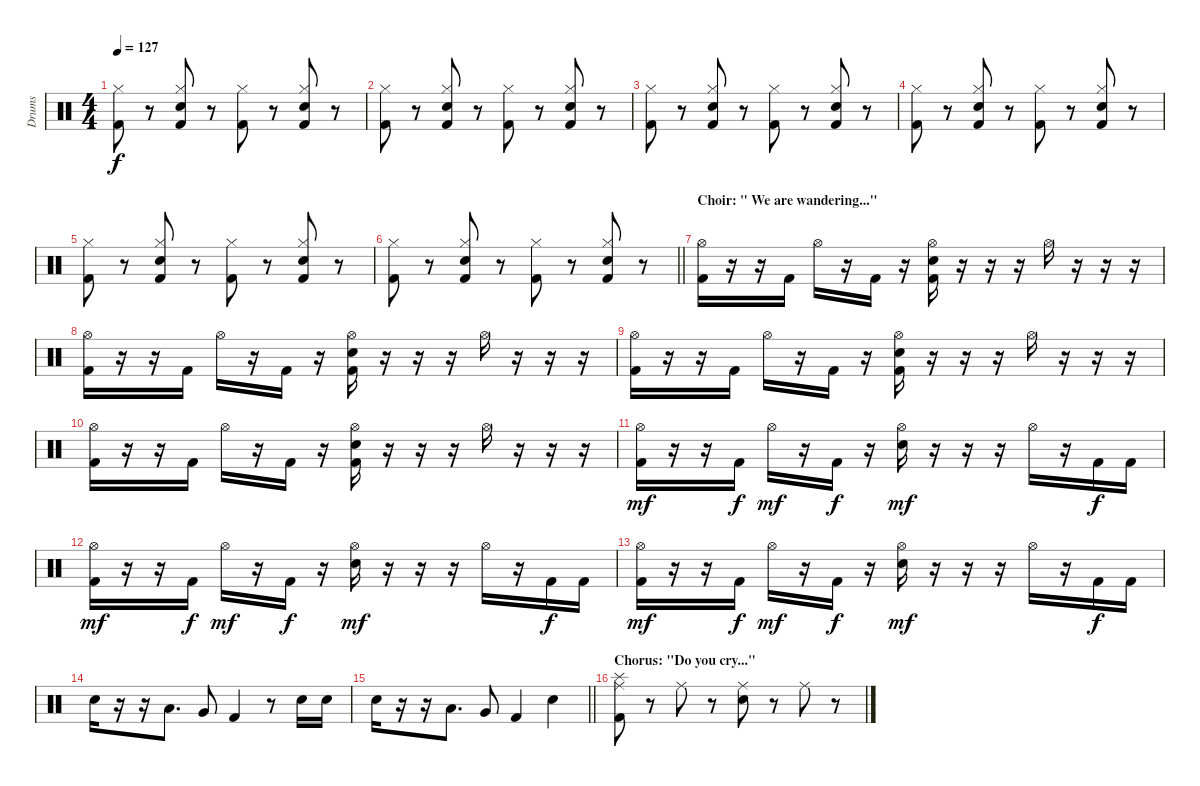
\track ("Drums" "Drums") {instrument percussion}
\staff {score}
\articulation defaults
\ts (4 4)
\tempo 127
\clef neutral
\ks c
("Kick (hit) 2" "Hi-Hat (closed)").8{dy f} r.8 ("Kick (hit) 2" "Electric Snare (hit)" "Hi-Hat (closed)").8 r.8 ("Kick (hit) 2" "Hi-Hat (closed)").8 r.8 ("Kick (hit) 2" "Electric Snare (hit)" "Hi-Hat (closed)").8 r.8 |
("Kick (hit) 2" "Hi-Hat (closed)").8 r.8 ("Kick (hit) 2" "Electric Snare (hit)" "Hi-Hat (closed)").8 r.8 ("Kick (hit) 2" "Hi-Hat (closed)").8 r.8 ("Kick (hit) 2" "Electric Snare (hit)" "Hi-Hat (closed)").8 r.8 |
("Kick (hit) 2" "Hi-Hat (closed)").8 r.8 ("Kick (hit) 2" "Electric Snare (hit)" "Hi-Hat (closed)").8 r.8 ("Kick (hit) 2" "Hi-Hat (closed)").8 r.8 ("Kick (hit) 2" "Electric Snare (hit)" "Hi-Hat (closed)").8 r.8 |
("Kick (hit) 2" "Hi-Hat (closed)").8 r.8 ("Kick (hit) 2" "Electric Snare (hit)" "Hi-Hat (closed)").8 r.8 ("Kick (hit) 2" "Hi-Hat (closed)").8 r.8 ("Kick (hit) 2" "Electric Snare (hit)" "Hi-Hat (closed)").8 r.8 |
("Kick (hit) 2" "Hi-Hat (closed)").8 r.8 ("Kick (hit) 2" "Electric Snare (hit)" "Hi-Hat (closed)").8 r.8 ("Kick (hit) 2" "Hi-Hat (closed)").8 r.8 ("Kick (hit) 2" "Electric Snare (hit)" "Hi-Hat (closed)").8 r.8 |
\barLineRight lightlight
("Kick (hit) 2" "Hi-Hat (closed)").8 r.8 ("Kick (hit) 2" "Electric Snare (hit)" "Hi-Hat (closed)").8 r.8 ("Kick (hit) 2" "Hi-Hat (closed)").8 r.8 ("Kick (hit) 2" "Electric Snare (hit)" "Hi-Hat (closed)").8 r.8 |
\section ("" "Choir: \" We are wandering...\"")
("Kick (hit) 2" "Hi-Hat (open)").16 r.16 r.16 "Kick (hit) 2".16 "Hi-Hat (open)".16 r.16 "Kick (hit) 2".16 r.16 ("Kick (hit) 2" "Electric Snare (hit)" "Hi-Hat (open)").16 r.16 r.16 r.16 "Hi-Hat (open)".16 r.16 r.16 r.16 |
("Kick (hit) 2" "Hi-Hat (open)").16 r.16 r.16 "Kick (hit) 2".16 "Hi-Hat (open)".16 r.16 "Kick (hit) 2".16 r.16 ("Kick (hit) 2" "Electric Snare (hit)" "Hi-Hat (open)").16 r.16 r.16 r.16 "Hi-Hat (open)".16 r.16 r.16 r.16 |
("Kick (hit) 2" "Hi-Hat (open)").16 r.16 r.16 "Kick (hit) 2".16 "Hi-Hat (open)".16 r.16 "Kick (hit) 2".16 r.16 ("Kick (hit) 2" "Electric Snare (hit)" "Hi-Hat (open)").16 r.16 r.16 r.16 "Hi-Hat (open)".16 r.16 r.16 r.16 |
("Kick (hit) 2" "Hi-Hat (open)").16 r.16 r.16 "Kick (hit) 2".16 "Hi-Hat (open)".16 r.16 "Kick (hit) 2".16 r.16 ("Kick (hit) 2" "Electric Snare (hit)" "Hi-Hat (open)").16 r.16 r.16 r.16 "Hi-Hat (open)".16 r.16 r.16 r.16 |
("Kick (hit) 2" "Hi-Hat (open)").16{dy mf} r.16 r.16 "Kick (hit) 2".16{dy f} "Hi-Hat (open)".16{dy mf} r.16 "Kick (hit) 2".16{dy f} r.16 ("Electric Snare (hit)" "Hi-Hat (open)").16{dy mf} r.16 r.16 r.16 "Hi-Hat (open)".16 r.16 "Kick (hit) 2".16{dy f} "Kick (hit) 2".16 |
("Kick (hit) 2" "Hi-Hat (open)").16{dy mf} r.16 r.16 "Kick (hit) 2".16{dy f} "Hi-Hat (open)".16{dy mf} r.16 "Kick (hit) 2".16{dy f} r.16 ("Electric Snare (hit)" "Hi-Hat (open)").16{dy mf} r.16 r.16 r.16 "Hi-Hat (open)".16 r.16 "Kick (hit) 2".16{dy f} "Kick (hit) 2".16 |
("Kick (hit) 2" "Hi-Hat (open)").16{dy mf} r.16 r.16 "Kick (hit) 2".16{dy f} "Hi-Hat (open)".16{dy mf} r.16 "Kick (hit) 2".16{dy f} r.16 ("Electric Snare (hit)" "Hi-Hat (open)").16{dy mf} r.16 r.16 r.16 "Hi-Hat (open)".16 r.16 "Kick (hit) 2".16{dy f} "Kick (hit) 2".16 |
"Electric Snare (hit)".16 r.16 r.16 "Low Tom (hit)".8{d} "Very Low Tom (hit)".8 "Kick (hit) 2".4 r.8 "Electric Snare (hit)".16 "Electric Snare (hit)".16 |
\barLineRight lightlight "Electric Snare (hit)".16
r.16 r.16 "Low Tom (hit)".8{d} "Very Low Tom (hit)".8 "Kick (hit) 2".4 "Electric Snare (hit)".4 |
\section ("" "Chorus: \"Do you cry...\"")
("Ride (middle)" "Kick (hit) 2" "Splash (hit)").8 r.8 "Ride (middle)".8 r.8 ("Ride (middle)" "Electric Snare (hit)").8 r.8 "Ride (middle)".8 r.8
